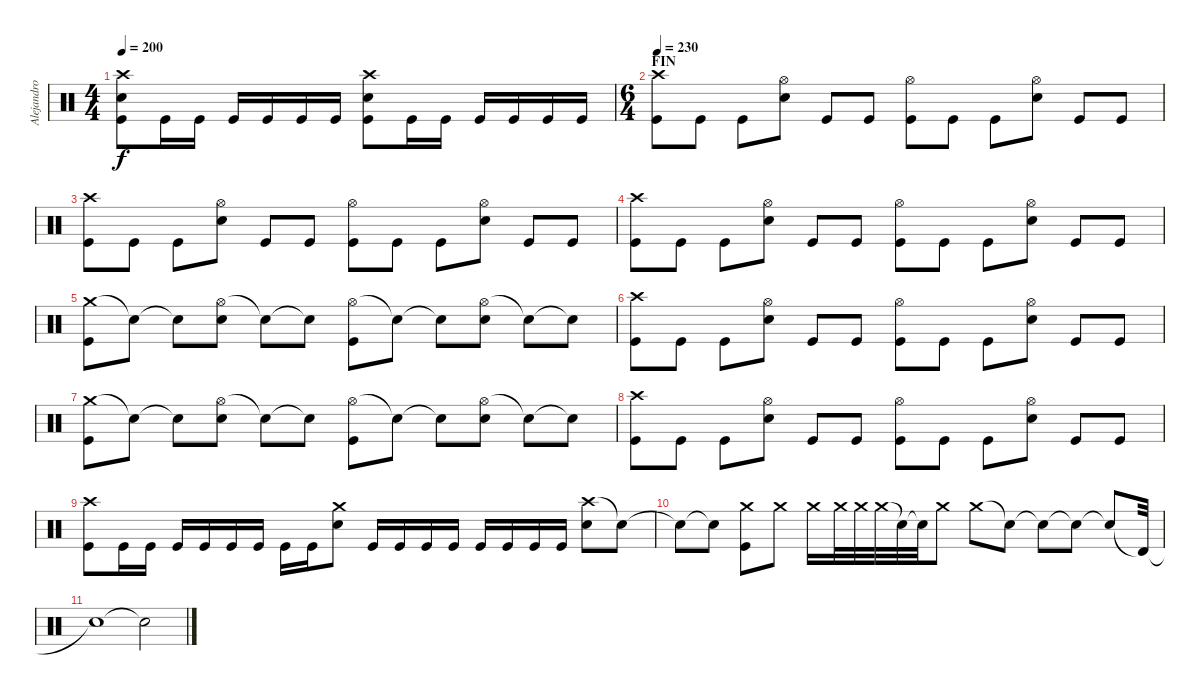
\track ("Alejandro M. (Bateria)" "Alejandro ") {instrument percussion}
\staff {score}
\articulation defaults
\ts (4 4)
\tempo 200
\clef neutral
\ks c
("Crash high (hit)" "Snare (hit) 2" "Kick (hit)").8{dy f} "Kick (hit)".16 "Kick (hit)".16 "Kick (hit)".16 "Kick (hit)".16 "Kick (hit)".16 "Kick (hit)".16 ("Crash high (hit)" "Snare (hit) 2" "Kick (hit)").8 "Kick (hit)".16 "Kick (hit)".16 "Kick (hit)".16 "Kick (hit)".16 "Kick (hit)".16 "Kick (hit)".16 |
\ts (6 4)
\section ("" "FIN")
\tempo 230
("Crash high (hit)" "Kick (hit)").8 "Kick (hit)".8 "Kick (hit)".8 ("Hi-Hat (open)" "Snare (hit) 2").8 "Kick (hit)".8 "Kick (hit)".8 ("Hi-Hat (open)" "Kick (hit)").8 "Kick (hit)".8 "Kick (hit)".8 ("Hi-Hat (open)" "Snare (hit) 2").8 "Kick (hit)".8 "Kick (hit)".8 |
("Crash high (hit)" "Kick (hit)").8 "Kick (hit)".8 "Kick (hit)".8 ("Hi-Hat (open)" "Snare (hit) 2").8 "Kick (hit)".8 "Kick (hit)".8 ("Hi-Hat (open)" "Kick (hit)").8 "Kick (hit)".8 "Kick (hit)".8 ("Hi-Hat (open)" "Snare (hit) 2").8 "Kick (hit)".8 "Kick (hit)".8 |
("Crash high (hit)" "Kick (hit)").8 "Kick (hit)".8 "Kick (hit)".8 ("Hi-Hat (open)" "Snare (hit) 2").8 "Kick (hit)".8 "Kick (hit)".8 ("Hi-Hat (open)" "Kick (hit)").8 "Kick (hit)".8 "Kick (hit)".8 ("Hi-Hat (open)" "Snare (hit) 2").8 "Kick (hit)".8 "Kick (hit)".8 |
("Crash medium (hit)" "Kick (hit)").8 "Snare (hit)"{t}.8 "Snare (hit)"{t}.8 ("Hi-Hat (open)" "Snare (hit) 2").8 "Snare (hit)"{t}.8 "Snare (hit)"{t}.8 ("Hi-Hat (open)" "Kick (hit)").8 "Snare (hit)"{t}.8 "Snare (hit)"{t}.8 ("Hi-Hat (open)" "Snare (hit) 2").8 "Snare (hit)"{t}.8 "Snare (hit)"{t}.8 |
("Crash high (hit)" "Kick (hit)").8 "Kick (hit)".8 "Kick (hit)".8 ("Hi-Hat (open)" "Snare (hit) 2").8 "Kick (hit)".8 "Kick (hit)".8 ("Hi-Hat (open)" "Kick (hit)").8 "Kick (hit)".8 "Kick (hit)".8 ("Hi-Hat (open)" "Snare (hit) 2").8 "Kick (hit)".8 "Kick (hit)".8 |
("Crash medium (hit)" "Kick (hit)").8 "Snare (hit)"{t}.8 "Snare (hit)"{t}.8 ("Hi-Hat (open)" "Snare (hit) 2").8 "Snare (hit)"{t}.8 "Snare (hit)"{t}.8 ("Hi-Hat (open)" "Kick (hit)").8 "Snare (hit)"{t}.8 "Snare (hit)"{t}.8 ("Hi-Hat (open)" "Snare (hit) 2").8 "Snare (hit)"{t}.8 "Snare (hit)"{t}.8 |
("Crash high (hit)" "Kick (hit)").8 "Kick (hit)".8 "Kick (hit)".8 ("Hi-Hat (open)" "Snare (hit) 2").8 "Kick (hit)".8 "Kick (hit)".8 ("Hi-Hat (open)" "Kick (hit)").8 "Kick (hit)".8 "Kick (hit)".8 ("Hi-Hat (open)" "Snare (hit) 2").8 "Kick (hit)".8 "Kick (hit)".8 |
("Crash high (hit)" "Kick (hit)").8 "Kick (hit)".16 "Kick (hit)".16 "Kick (hit)".16 "Kick (hit)".16 "Kick (hit)".16 "Kick (hit)".16 "Kick (hit)".16 "Kick (hit)".16 ("Crash medium (hit)" "Snare (hit) 2").8 "Kick (hit)".16 "Kick (hit)".16 "Kick (hit)".16 "Kick (hit)".16 "Kick (hit)".16 "Kick (hit)".16 "Kick (hit)".16 "Kick (hit)".16 ("Crash high (hit)" "Snare (hit) 2").8 "Snare (hit)"{t}.8 |
"Snare (hit)"{t}.8 "Snare (hit)"{t}.8 ("Crash medium (hit)" "Kick (hit)").8 "Crash medium (hit)".8 "Crash medium (hit)".16 "Crash medium (hit)".32 "Crash medium (hit)".32 "Crash medium (hit)".32 "Snare (hit)"{t}.32 "Snare (hit)"{t}.32 "Crash medium (hit)".8 "Crash medium (hit)".8 "Snare (hit)"{t}.8 "Snare (hit)"{t}.8 "Snare (hit)"{t}.8 "Snare (hit)"{t}.8 "Timbale high (hit)"{t}.32 |
"Snare (hit)"{t}.1 "Snare (hit)"{t}.2
